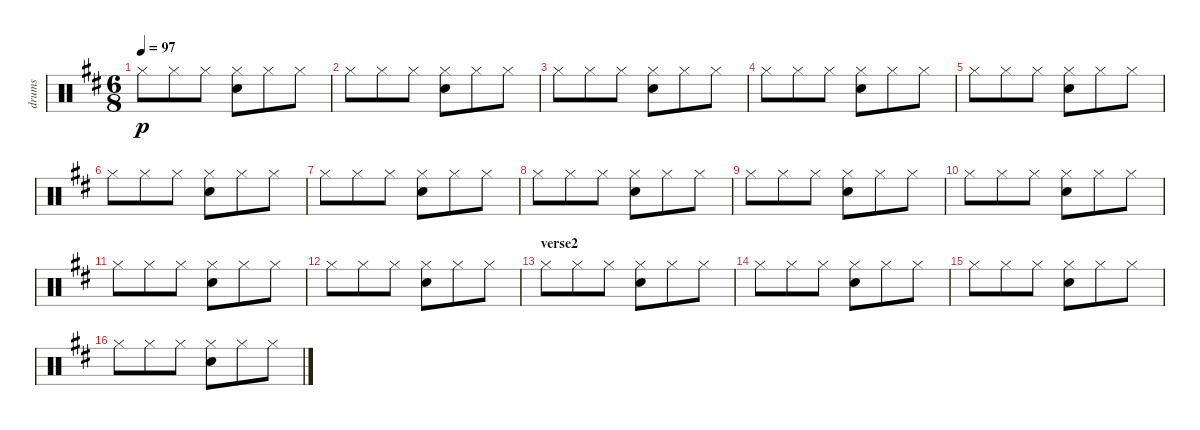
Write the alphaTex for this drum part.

\track ("drums" "drums") {instrument percussion}
\staff {score}
\articulation defaults
\ts (6 8)
\tempo 97
\clef neutral
\ks d "Hi-Hat (closed)".8{dy p} "Hi-Hat (closed)".8 "Hi-Hat (closed)".8
("Hi-Hat (closed)" "Electric Snare (hit)").8 "Hi-Hat (closed)".8 "Hi-Hat (closed)".8 |
"Hi-Hat (closed)".8 "Hi-Hat (closed)".8 "Hi-Hat (closed)".8 ("Hi-Hat (closed)" "Electric Snare (hit)").8 "Hi-Hat (closed)".8 "Hi-Hat (closed)".8 |
"Hi-Hat (closed)".8 "Hi-Hat (closed)".8 "Hi-Hat (closed)".8 ("Hi-Hat (closed)" "Electric Snare (hit)").8 "Hi-Hat (closed)".8 "Hi-Hat (closed)".8 |
"Hi-Hat (closed)".8 "Hi-Hat (closed)".8 "Hi-Hat (closed)".8 ("Hi-Hat (closed)" "Electric Snare (hit)").8 "Hi-Hat (closed)".8 "Hi-Hat (closed)".8 |
"Hi-Hat (closed)".8 "Hi-Hat (closed)".8 "Hi-Hat (closed)".8 ("Hi-Hat (closed)" "Electric Snare (hit)").8 "Hi-Hat (closed)".8 "Hi-Hat (closed)".8 |
"Hi-Hat (closed)".8 "Hi-Hat (closed)".8 "Hi-Hat (closed)".8 ("Hi-Hat (closed)" "Electric Snare (hit)").8 "Hi-Hat (closed)".8 "Hi-Hat (closed)".8 |
"Hi-Hat (closed)".8 "Hi-Hat (closed)".8 "Hi-Hat (closed)".8 ("Hi-Hat (closed)" "Electric Snare (hit)").8 "Hi-Hat (closed)".8 "Hi-Hat (closed)".8 |
"Hi-Hat (closed)".8 "Hi-Hat (closed)".8 "Hi-Hat (closed)".8 ("Hi-Hat (closed)" "Electric Snare (hit)").8 "Hi-Hat (closed)".8 "Hi-Hat (closed)".8 |
"Hi-Hat (closed)".8 "Hi-Hat (closed)".8 "Hi-Hat (closed)".8 ("Hi-Hat (closed)" "Electric Snare (hit)").8 "Hi-Hat (closed)".8 "Hi-Hat (closed)".8 |
"Hi-Hat (closed)".8 "Hi-Hat (closed)".8 "Hi-Hat (closed)".8 ("Hi-Hat (closed)" "Electric Snare (hit)").8 "Hi-Hat (closed)".8 "Hi-Hat (closed)".8 |
"Hi-Hat (closed)".8 "Hi-Hat (closed)".8 "Hi-Hat (closed)".8 ("Hi-Hat (closed)" "Electric Snare (hit)").8 "Hi-Hat (closed)".8 "Hi-Hat (closed)".8 |
"Hi-Hat (closed)".8 "Hi-Hat (closed)".8 "Hi-Hat (closed)".8 ("Hi-Hat (closed)" "Electric Snare (hit)").8 "Hi-Hat (closed)".8 "Hi-Hat (closed)".8 |
\section ("" "verse2")
"Hi-Hat (closed)".8 "Hi-Hat (closed)".8 "Hi-Hat (closed)".8 ("Hi-Hat (closed)" "Electric Snare (hit)").8 "Hi-Hat (closed)".8 "Hi-Hat (closed)".8 |
"Hi-Hat (closed)".8 "Hi-Hat (closed)".8 "Hi-Hat (closed)".8 ("Hi-Hat (closed)" "Electric Snare (hit)").8 "Hi-Hat (closed)".8 "Hi-Hat (closed)".8 |
"Hi-Hat (closed)".8 "Hi-Hat (closed)".8 "Hi-Hat (closed)".8 ("Hi-Hat (closed)" "Electric Snare (hit)").8 "Hi-Hat (closed)".8 "Hi-Hat (closed)".8 |
"Hi-Hat (closed)".8 "Hi-Hat (closed)".8 "Hi-Hat (closed)".8 ("Hi-Hat (closed)" "Electric Snare (hit)").8 "Hi-Hat (closed)".8 "Hi-Hat (closed)".8
